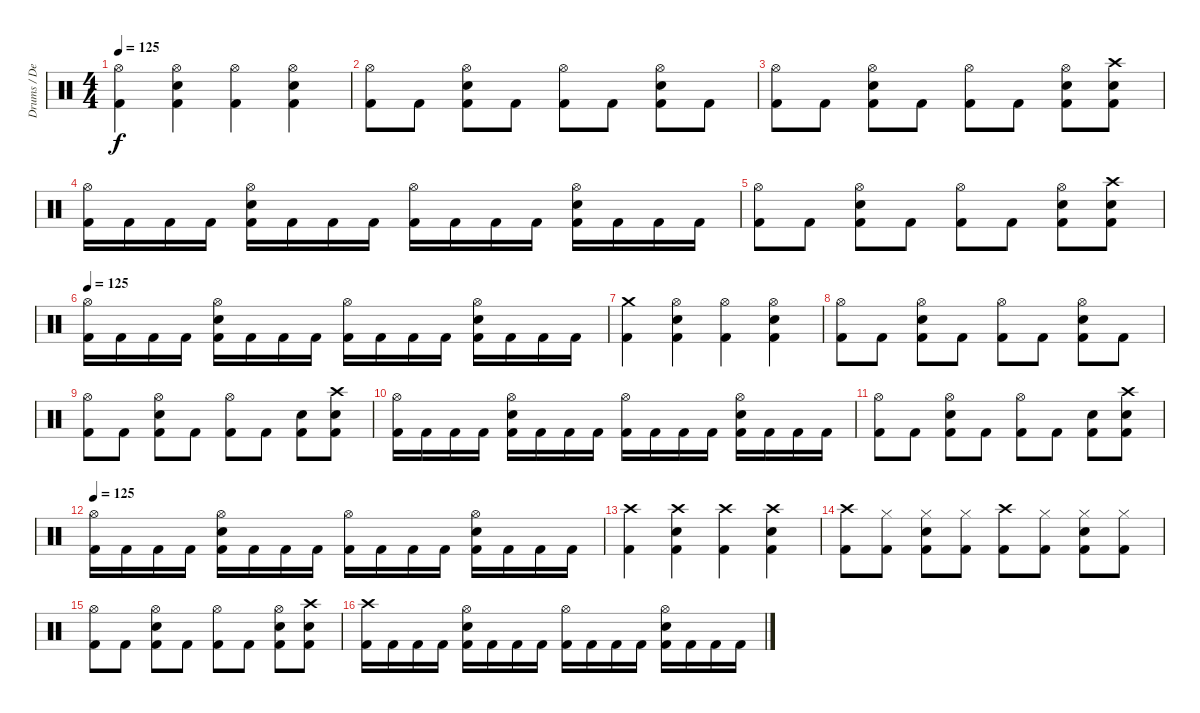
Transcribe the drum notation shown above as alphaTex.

\track ("Drums / Dennis" "Drums / De") {instrument percussion}
\staff {score}
\articulation defaults
\ts (4 4)
\tempo 125
\clef neutral
\ks c
("Hi-Hat (open)" "Kick (hit) 2").4{dy f} ("Hi-Hat (open)" "Electric Snare (hit)" "Kick (hit) 2").4 ("Hi-Hat (open)" "Kick (hit) 2").4 ("Hi-Hat (open)" "Electric Snare (hit)" "Kick (hit) 2").4 |
("Hi-Hat (open)" "Kick (hit) 2").8 "Kick (hit) 2".8 ("Hi-Hat (open)" "Electric Snare (hit)" "Kick (hit) 2").8 "Kick (hit) 2".8 ("Hi-Hat (open)" "Kick (hit) 2").8 "Kick (hit) 2".8 ("Hi-Hat (open)" "Electric Snare (hit)" "Kick (hit) 2").8 "Kick (hit) 2".8 |
("Hi-Hat (open)" "Kick (hit) 2").8 "Kick (hit) 2".8 ("Hi-Hat (open)" "Electric Snare (hit)" "Kick (hit) 2").8 "Kick (hit) 2".8 ("Hi-Hat (open)" "Kick (hit) 2").8 "Kick (hit) 2".8 ("Hi-Hat (open)" "Electric Snare (hit)" "Kick (hit) 2").8 ("Crash high (hit)" "Electric Snare (hit)" "Kick (hit) 2").8 |
("Hi-Hat (open)" "Kick (hit) 2").16 "Kick (hit) 2".16 "Kick (hit) 2".16 "Kick (hit) 2".16 ("Hi-Hat (open)" "Electric Snare (hit)" "Kick (hit) 2").16 "Kick (hit) 2".16 "Kick (hit) 2".16 "Kick (hit) 2".16 ("Hi-Hat (open)" "Kick (hit) 2").16 "Kick (hit) 2".16 "Kick (hit) 2".16 "Kick (hit) 2".16 ("Hi-Hat (open)" "Electric Snare (hit)" "Kick (hit) 2").16 "Kick (hit) 2".16 "Kick (hit) 2".16 "Kick (hit) 2".16 |
("Hi-Hat (open)" "Kick (hit) 2").8 "Kick (hit) 2".8 ("Hi-Hat (open)" "Electric Snare (hit)" "Kick (hit) 2").8 "Kick (hit) 2".8 ("Hi-Hat (open)" "Kick (hit) 2").8 "Kick (hit) 2".8 ("Hi-Hat (open)" "Electric Snare (hit)" "Kick (hit) 2").8 ("Crash high (hit)" "Electric Snare (hit)" "Kick (hit) 2").8 |
\tempo 125
("Hi-Hat (open)" "Kick (hit) 2").16 "Kick (hit) 2".16 "Kick (hit) 2".16 "Kick (hit) 2".16 ("Hi-Hat (open)" "Electric Snare (hit)" "Kick (hit) 2").16 "Kick (hit) 2".16 "Kick (hit) 2".16 "Kick (hit) 2".16 ("Hi-Hat (open)" "Kick (hit) 2").16 "Kick (hit) 2".16 "Kick (hit) 2".16 "Kick (hit) 2".16 ("Hi-Hat (open)" "Electric Snare (hit)" "Kick (hit) 2").16 "Kick (hit) 2".16 "Kick (hit) 2".16 "Kick (hit) 2".16 |
("Crash medium (hit)" "Kick (hit) 2").4 ("Hi-Hat (open)" "Electric Snare (hit)" "Kick (hit) 2").4 ("Hi-Hat (open)" "Kick (hit) 2").4 ("Hi-Hat (open)" "Electric Snare (hit)" "Kick (hit) 2").4 |
("Hi-Hat (open)" "Kick (hit) 2").8 "Kick (hit) 2".8 ("Hi-Hat (open)" "Electric Snare (hit)" "Kick (hit) 2").8 "Kick (hit) 2".8 ("Hi-Hat (open)" "Kick (hit) 2").8 "Kick (hit) 2".8 ("Hi-Hat (open)" "Electric Snare (hit)" "Kick (hit) 2").8 "Kick (hit) 2".8 |
("Hi-Hat (open)" "Kick (hit) 2").8 "Kick (hit) 2".8 ("Hi-Hat (open)" "Electric Snare (hit)" "Kick (hit) 2").8 "Kick (hit) 2".8 ("Hi-Hat (open)" "Kick (hit) 2").8 "Kick (hit) 2".8 ("Electric Snare (hit)" "Kick (hit) 2").8 ("Crash high (hit)" "Electric Snare (hit)" "Kick (hit) 2").8 |
("Hi-Hat (open)" "Kick (hit) 2").16 "Kick (hit) 2".16 "Kick (hit) 2".16 "Kick (hit) 2".16 ("Hi-Hat (open)" "Electric Snare (hit)" "Kick (hit) 2").16 "Kick (hit) 2".16 "Kick (hit) 2".16 "Kick (hit) 2".16 ("Hi-Hat (open)" "Kick (hit) 2").16 "Kick (hit) 2".16 "Kick (hit) 2".16 "Kick (hit) 2".16 ("Hi-Hat (open)" "Electric Snare (hit)" "Kick (hit) 2").16 "Kick (hit) 2".16 "Kick (hit) 2".16 "Kick (hit) 2".16 |
("Hi-Hat (open)" "Kick (hit) 2").8 "Kick (hit) 2".8 ("Hi-Hat (open)" "Electric Snare (hit)" "Kick (hit) 2").8 "Kick (hit) 2".8 ("Hi-Hat (open)" "Kick (hit) 2").8 "Kick (hit) 2".8 ("Electric Snare (hit)" "Kick (hit) 2").8 ("Crash high (hit)" "Electric Snare (hit)" "Kick (hit) 2").8 |
\tempo 125
("Hi-Hat (open)" "Kick (hit) 2").16 "Kick (hit) 2".16 "Kick (hit) 2".16 "Kick (hit) 2".16 ("Hi-Hat (open)" "Electric Snare (hit)" "Kick (hit) 2").16 "Kick (hit) 2".16 "Kick (hit) 2".16 "Kick (hit) 2".16 ("Hi-Hat (open)" "Kick (hit) 2").16 "Kick (hit) 2".16 "Kick (hit) 2".16 "Kick (hit) 2".16 ("Hi-Hat (open)" "Electric Snare (hit)" "Kick (hit) 2").16 "Kick (hit) 2".16 "Kick (hit) 2".16 "Kick (hit) 2".16 |
("Crash high (hit)" "Kick (hit) 2").4 ("Crash high (hit)" "Electric Snare (hit)" "Kick (hit) 2").4 ("Crash high (hit)" "Kick (hit) 2").4 ("Crash high (hit)" "Electric Snare (hit)" "Kick (hit) 2").4 |
("Crash high (hit)" "Kick (hit) 2").8 ("Hi-Hat (closed)" "Kick (hit) 2").8 ("Hi-Hat (closed)" "Electric Snare (hit)" "Kick (hit) 2").8 ("Hi-Hat (closed)" "Kick (hit) 2").8 ("Crash high (hit)" "Kick (hit) 2").8 ("Hi-Hat (closed)" "Kick (hit) 2").8 ("Hi-Hat (closed)" "Electric Snare (hit)" "Kick (hit) 2").8 ("Hi-Hat (closed)" "Kick (hit) 2").8 |
("Hi-Hat (open)" "Kick (hit) 2").8 "Kick (hit) 2".8 ("Hi-Hat (open)" "Electric Snare (hit)" "Kick (hit) 2").8 "Kick (hit) 2".8 ("Hi-Hat (open)" "Kick (hit) 2").8 "Kick (hit) 2".8 ("Hi-Hat (open)" "Electric Snare (hit)" "Kick (hit) 2").8 ("Crash high (hit)" "Electric Snare (hit)" "Kick (hit) 2").8 |
("Crash high (hit)" "Kick (hit) 2").16 "Kick (hit) 2".16 "Kick (hit) 2".16 "Kick (hit) 2".16 ("Hi-Hat (open)" "Electric Snare (hit)" "Kick (hit) 2").16 "Kick (hit) 2".16 "Kick (hit) 2".16 "Kick (hit) 2".16 ("Hi-Hat (open)" "Kick (hit) 2").16 "Kick (hit) 2".16 "Kick (hit) 2".16 "Kick (hit) 2".16 ("Hi-Hat (open)" "Electric Snare (hit)" "Kick (hit) 2").16 "Kick (hit) 2".16 "Kick (hit) 2".16 "Kick (hit) 2".16
